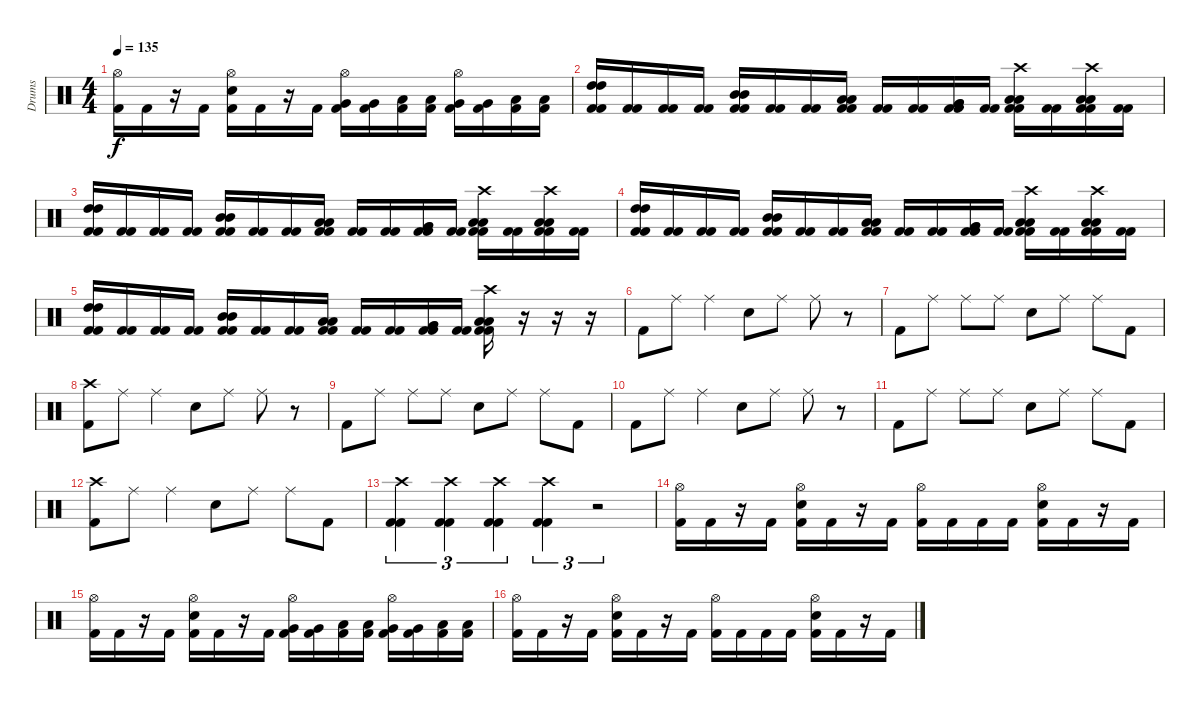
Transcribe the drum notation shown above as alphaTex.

\track ("Drums" "Drums") {instrument percussion}
\staff {score}
\articulation defaults
\ts (4 4)
\tempo 135
\clef neutral
\ks c
("Hi-Hat (open)" "Kick (hit) 2").16{dy f} "Kick (hit) 2".16 r.16 "Kick (hit) 2".16 ("Hi-Hat (open)" "Electric Snare (hit)" "Kick (hit) 2").16 "Kick (hit) 2".16 r.16 "Kick (hit) 2".16 ("Hi-Hat (open)" "Very Low Tom (hit)" "Kick (hit) 2").16 ("Very Low Tom (hit)" "Kick (hit) 2").16 ("Low Floor Tom (hit)" "Kick (hit) 2").16 ("Low Floor Tom (hit)" "Kick (hit) 2").16 ("Hi-Hat (open)" "Very Low Tom (hit)" "Kick (hit) 2").16 ("Very Low Tom (hit)" "Kick (hit) 2").16 ("Low Floor Tom (hit)" "Kick (hit) 2").16 ("Low Floor Tom (hit)" "Kick (hit) 2").16 |
("High Tom (hit)" "High Tom (hit)" "Kick (hit) 2" "Kick (hit) 2").16 ("Kick (hit) 2" "Kick (hit) 2").16 ("Kick (hit) 2" "Kick (hit) 2").16 ("Kick (hit) 2" "Kick (hit) 2").16 ("Mid Tom (hit)" "Mid Tom (hit)" "Kick (hit) 2" "Kick (hit) 2").16 ("Kick (hit) 2" "Kick (hit) 2").16 ("Kick (hit) 2" "Kick (hit) 2").16 ("Low Tom (hit)" "Low Tom (hit)" "Kick (hit) 2" "Kick (hit) 2").16 ("Kick (hit) 2" "Kick (hit) 2").16 ("Kick (hit) 2" "Kick (hit) 2").16 ("Very Low Tom (hit)" "Very Low Tom (hit)" "Kick (hit) 2" "Kick (hit) 2").16 ("Kick (hit) 2" "Kick (hit) 2").16 ("Crash high (hit)" "Low Floor Tom (hit)" "Low Floor Tom (hit)" "Kick (hit) 2" "Kick (hit) 2").16 ("Kick (hit) 2" "Kick (hit) 2").16 ("Crash high (hit)" "Low Floor Tom (hit)" "Low Floor Tom (hit)" "Kick (hit) 2" "Kick (hit) 2").16 ("Kick (hit) 2" "Kick (hit) 2").16 |
("High Tom (hit)" "High Tom (hit)" "Kick (hit) 2" "Kick (hit) 2").16 ("Kick (hit) 2" "Kick (hit) 2").16 ("Kick (hit) 2" "Kick (hit) 2").16 ("Kick (hit) 2" "Kick (hit) 2").16 ("Mid Tom (hit)" "Mid Tom (hit)" "Kick (hit) 2" "Kick (hit) 2").16 ("Kick (hit) 2" "Kick (hit) 2").16 ("Kick (hit) 2" "Kick (hit) 2").16 ("Low Tom (hit)" "Low Tom (hit)" "Kick (hit) 2" "Kick (hit) 2").16 ("Kick (hit) 2" "Kick (hit) 2").16 ("Kick (hit) 2" "Kick (hit) 2").16 ("Very Low Tom (hit)" "Very Low Tom (hit)" "Kick (hit) 2" "Kick (hit) 2").16 ("Kick (hit) 2" "Kick (hit) 2").16 ("Crash high (hit)" "Low Floor Tom (hit)" "Low Floor Tom (hit)" "Kick (hit) 2" "Kick (hit) 2").16 ("Kick (hit) 2" "Kick (hit) 2").16 ("Crash high (hit)" "Low Floor Tom (hit)" "Low Floor Tom (hit)" "Kick (hit) 2" "Kick (hit) 2").16 ("Kick (hit) 2" "Kick (hit) 2").16 |
("High Tom (hit)" "High Tom (hit)" "Kick (hit) 2" "Kick (hit) 2").16 ("Kick (hit) 2" "Kick (hit) 2").16 ("Kick (hit) 2" "Kick (hit) 2").16 ("Kick (hit) 2" "Kick (hit) 2").16 ("Mid Tom (hit)" "Mid Tom (hit)" "Kick (hit) 2" "Kick (hit) 2").16 ("Kick (hit) 2" "Kick (hit) 2").16 ("Kick (hit) 2" "Kick (hit) 2").16 ("Low Tom (hit)" "Low Tom (hit)" "Kick (hit) 2" "Kick (hit) 2").16 ("Kick (hit) 2" "Kick (hit) 2").16 ("Kick (hit) 2" "Kick (hit) 2").16 ("Very Low Tom (hit)" "Very Low Tom (hit)" "Kick (hit) 2" "Kick (hit) 2").16 ("Kick (hit) 2" "Kick (hit) 2").16 ("Crash high (hit)" "Low Floor Tom (hit)" "Low Floor Tom (hit)" "Kick (hit) 2" "Kick (hit) 2").16 ("Kick (hit) 2" "Kick (hit) 2").16 ("Crash high (hit)" "Low Floor Tom (hit)" "Low Floor Tom (hit)" "Kick (hit) 2" "Kick (hit) 2").16 ("Kick (hit) 2" "Kick (hit) 2").16 |
("High Tom (hit)" "High Tom (hit)" "Kick (hit) 2" "Kick (hit) 2").16 ("Kick (hit) 2" "Kick (hit) 2").16 ("Kick (hit) 2" "Kick (hit) 2").16 ("Kick (hit) 2" "Kick (hit) 2").16 ("Mid Tom (hit)" "Mid Tom (hit)" "Kick (hit) 2" "Kick (hit) 2").16 ("Kick (hit) 2" "Kick (hit) 2").16 ("Kick (hit) 2" "Kick (hit) 2").16 ("Low Tom (hit)" "Low Tom (hit)" "Kick (hit) 2" "Kick (hit) 2").16 ("Kick (hit) 2" "Kick (hit) 2").16 ("Kick (hit) 2" "Kick (hit) 2").16 ("Very Low Tom (hit)" "Very Low Tom (hit)" "Kick (hit) 2" "Kick (hit) 2").16 ("Kick (hit) 2" "Kick (hit) 2").16 ("Crash high (hit)" "Low Floor Tom (hit)" "Low Floor Tom (hit)" "Kick (hit) 2" "Kick (hit) 2").16 r.16 r.16 r.16 |
"Kick (hit) 2".8 "Ride (middle)".8 "Ride (middle)".4 "Electric Snare (hit)".8 "Ride (middle)".8 "Ride (middle)".8 r.8 |
"Kick (hit) 2".8 "Ride (middle)".8 "Ride (middle)".8 "Ride (middle)".8 "Electric Snare (hit)".8 "Ride (middle)".8 "Ride (middle)".8 "Kick (hit) 2".8 |
("Crash high (hit)" "Kick (hit) 2").8 "Ride (middle)".8 "Ride (middle)".4 "Electric Snare (hit)".8 "Ride (middle)".8 "Ride (middle)".8 r.8 |
"Kick (hit) 2".8 "Ride (middle)".8 "Ride (middle)".8 "Ride (middle)".8 "Electric Snare (hit)".8 "Ride (middle)".8 "Ride (middle)".8 "Kick (hit) 2".8 |
"Kick (hit) 2".8 "Ride (middle)".8 "Ride (middle)".4 "Electric Snare (hit)".8 "Ride (middle)".8 "Ride (middle)".8 r.8 |
"Kick (hit) 2".8 "Ride (middle)".8 "Ride (middle)".8 "Ride (middle)".8 "Electric Snare (hit)".8 "Ride (middle)".8 "Ride (middle)".8 "Kick (hit) 2".8 |
("Crash high (hit)" "Kick (hit) 2").8 "Ride (middle)".8 "Ride (middle)".4 "Electric Snare (hit)".8 "Ride (middle)".8 "Ride (middle)".8 "Kick (hit) 2".8 |
("Crash high (hit)" "Kick (hit) 2" "Kick (hit) 2").4{tu (3 2)} ("Crash high (hit)" "Kick (hit) 2" "Kick (hit) 2").4{tu (3 2)} ("Crash high (hit)" "Kick (hit) 2" "Kick (hit) 2").4{tu (3 2)} ("Crash high (hit)" "Kick (hit) 2" "Kick (hit) 2").4{tu (3 2)} r.2{tu (3 2)} |
("Hi-Hat (open)" "Kick (hit) 2").16 "Kick (hit) 2".16 r.16 "Kick (hit) 2".16 ("Hi-Hat (open)" "Electric Snare (hit)" "Kick (hit) 2").16 "Kick (hit) 2".16 r.16 "Kick (hit) 2".16 ("Hi-Hat (open)" "Kick (hit) 2").16 "Kick (hit) 2".16 "Kick (hit) 2".16 "Kick (hit) 2".16 ("Hi-Hat (open)" "Electric Snare (hit)" "Kick (hit) 2").16 "Kick (hit) 2".16 r.16 "Kick (hit) 2".16 |
("Hi-Hat (open)" "Kick (hit) 2").16 "Kick (hit) 2".16 r.16 "Kick (hit) 2".16 ("Hi-Hat (open)" "Electric Snare (hit)" "Kick (hit) 2").16 "Kick (hit) 2".16 r.16 "Kick (hit) 2".16 ("Hi-Hat (open)" "Very Low Tom (hit)" "Kick (hit) 2").16 ("Very Low Tom (hit)" "Kick (hit) 2").16 ("Low Floor Tom (hit)" "Kick (hit) 2").16 ("Low Floor Tom (hit)" "Kick (hit) 2").16 ("Hi-Hat (open)" "Very Low Tom (hit)" "Kick (hit) 2").16 ("Very Low Tom (hit)" "Kick (hit) 2").16 ("Low Floor Tom (hit)" "Kick (hit) 2").16 ("Low Floor Tom (hit)" "Kick (hit) 2").16 |
("Hi-Hat (open)" "Kick (hit) 2").16 "Kick (hit) 2".16 r.16 "Kick (hit) 2".16 ("Hi-Hat (open)" "Electric Snare (hit)" "Kick (hit) 2").16 "Kick (hit) 2".16 r.16 "Kick (hit) 2".16 ("Hi-Hat (open)" "Kick (hit) 2").16 "Kick (hit) 2".16 "Kick (hit) 2".16 "Kick (hit) 2".16 ("Hi-Hat (open)" "Electric Snare (hit)" "Kick (hit) 2").16 "Kick (hit) 2".16 r.16 "Kick (hit) 2".16
